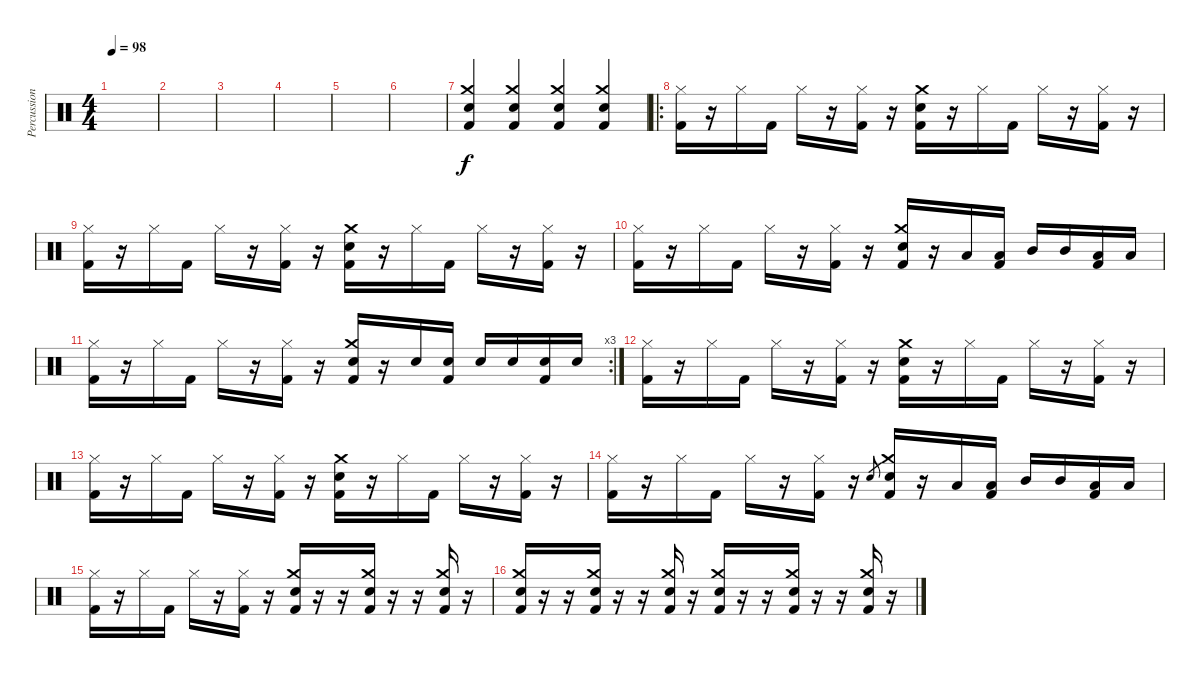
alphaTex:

\track ("Percussion" "Percussion") {instrument percussion}
\staff {score}
\articulation defaults
\ts (4 4)
\tempo 98
\clef neutral
\ks c
|
|
|
|
|
|
("Snare (hit) 2" "Crash medium (hit)" "Kick (hit) 2").4 ("Snare (hit) 2" "Crash medium (hit)" "Kick (hit) 2").4 ("Snare (hit) 2" "Crash medium (hit)" "Kick (hit) 2").4 ("Snare (hit) 2" "Crash medium (hit)" "Kick (hit) 2").4 |
\ro
("Hi-Hat (closed)" "Kick (hit) 2").16 r.16 "Hi-Hat (closed)".16 "Kick (hit) 2".16 "Hi-Hat (closed)".16 r.16 ("Hi-Hat (closed)" "Kick (hit) 2").16 r.16 ("Snare (hit) 2" "Crash medium (hit)" "Kick (hit) 2").16 r.16 "Hi-Hat (closed)".16 "Kick (hit) 2".16 "Hi-Hat (closed)".16 r.16 ("Hi-Hat (closed)" "Kick (hit) 2").16 r.16 |
("Hi-Hat (closed)" "Kick (hit) 2").16 r.16 "Hi-Hat (closed)".16 "Kick (hit) 2".16 "Hi-Hat (closed)".16 r.16 ("Hi-Hat (closed)" "Kick (hit) 2").16 r.16 ("Snare (hit) 2" "Crash medium (hit)" "Kick (hit) 2").16 r.16 "Hi-Hat (closed)".16 "Kick (hit) 2".16 "Hi-Hat (closed)".16 r.16 ("Hi-Hat (closed)" "Kick (hit) 2").16 r.16 |
("Hi-Hat (closed)" "Kick (hit) 2").16 r.16 "Hi-Hat (closed)".16 "Kick (hit) 2".16 "Hi-Hat (closed)".16 r.16 ("Hi-Hat (closed)" "Kick (hit) 2").16 r.16 ("Snare (hit) 2" "Crash medium (hit)" "Kick (hit) 2").16 r.16 "Low Floor Tom (hit)".16 ("Low Floor Tom (hit)" "Kick (hit) 2").16 "Mid Tom (hit)".16 "Mid Tom (hit)".16 ("Low Tom (hit)" "Kick (hit) 2").16 "Low Tom (hit)".16 |
\rc 3
("Hi-Hat (closed)" "Kick (hit) 2").16 r.16 "Hi-Hat (closed)".16 "Kick (hit) 2".16 "Hi-Hat (closed)".16 r.16 ("Hi-Hat (closed)" "Kick (hit) 2").16 r.16 ("Snare (hit) 2" "Crash medium (hit)" "Kick (hit) 2").16 r.16 "Snare (hit) 2".16 ("Snare (hit) 2" "Kick (hit) 2").16 "Snare (hit) 2".16 "Snare (hit) 2".16 ("Snare (hit) 2" "Kick (hit) 2").16 "Snare (hit) 2".16 |
("Hi-Hat (closed)" "Kick (hit) 2").16 r.16 "Hi-Hat (closed)".16 "Kick (hit) 2".16 "Hi-Hat (closed)".16 r.16 ("Hi-Hat (closed)" "Kick (hit) 2").16 r.16 ("Snare (hit) 2" "Crash medium (hit)" "Kick (hit) 2").16 r.16 "Hi-Hat (closed)".16 "Kick (hit) 2".16 "Hi-Hat (closed)".16 r.16 ("Hi-Hat (closed)" "Kick (hit) 2").16 r.16 |
("Hi-Hat (closed)" "Kick (hit) 2").16 r.16 "Hi-Hat (closed)".16 "Kick (hit) 2".16 "Hi-Hat (closed)".16 r.16 ("Hi-Hat (closed)" "Kick (hit) 2").16 r.16 ("Snare (hit) 2" "Crash medium (hit)" "Kick (hit) 2").16 r.16 "Hi-Hat (closed)".16 "Kick (hit) 2".16 "Hi-Hat (closed)".16 r.16 ("Hi-Hat (closed)" "Kick (hit) 2").16 r.16 |
("Hi-Hat (closed)" "Kick (hit) 2").16 r.16 "Hi-Hat (closed)".16 "Kick (hit) 2".16 "Hi-Hat (closed)".16 r.16 ("Hi-Hat (closed)" "Kick (hit) 2").16 r.16 "Snare (hit) 2".8{gr} ("Snare (hit) 2" "Crash medium (hit)" "Kick (hit) 2").16 r.16 "Low Floor Tom (hit)".16 ("Low Floor Tom (hit)" "Kick (hit) 2").16 "Mid Tom (hit)".16 "Mid Tom (hit)".16 ("Low Tom (hit)" "Kick (hit) 2").16 "Low Tom (hit)".16 |
("Hi-Hat (closed)" "Kick (hit) 2").16 r.16 "Hi-Hat (closed)".16 "Kick (hit) 2".16 "Hi-Hat (closed)".16 r.16 ("Hi-Hat (closed)" "Kick (hit) 2").16 r.16 ("Snare (hit) 2" "Crash medium (hit)" "Kick (hit) 2").16 r.16 r.16 ("Snare (hit) 2" "Crash medium (hit)" "Kick (hit) 2").16 r.16 r.16 ("Snare (hit) 2" "Crash medium (hit)" "Kick (hit) 2").16 r.16 |
("Snare (hit) 2" "Crash medium (hit)" "Kick (hit) 2").16 r.16 r.16 ("Snare (hit) 2" "Crash medium (hit)" "Kick (hit) 2").16 r.16 r.16 ("Snare (hit) 2" "Crash medium (hit)" "Kick (hit) 2").16 r.16 ("Snare (hit) 2" "Crash medium (hit)" "Kick (hit) 2").16 r.16 r.16 ("Snare (hit) 2" "Crash medium (hit)" "Kick (hit) 2").16 r.16 r.16 ("Snare (hit) 2" "Crash medium (hit)" "Kick (hit) 2").16 r.16
